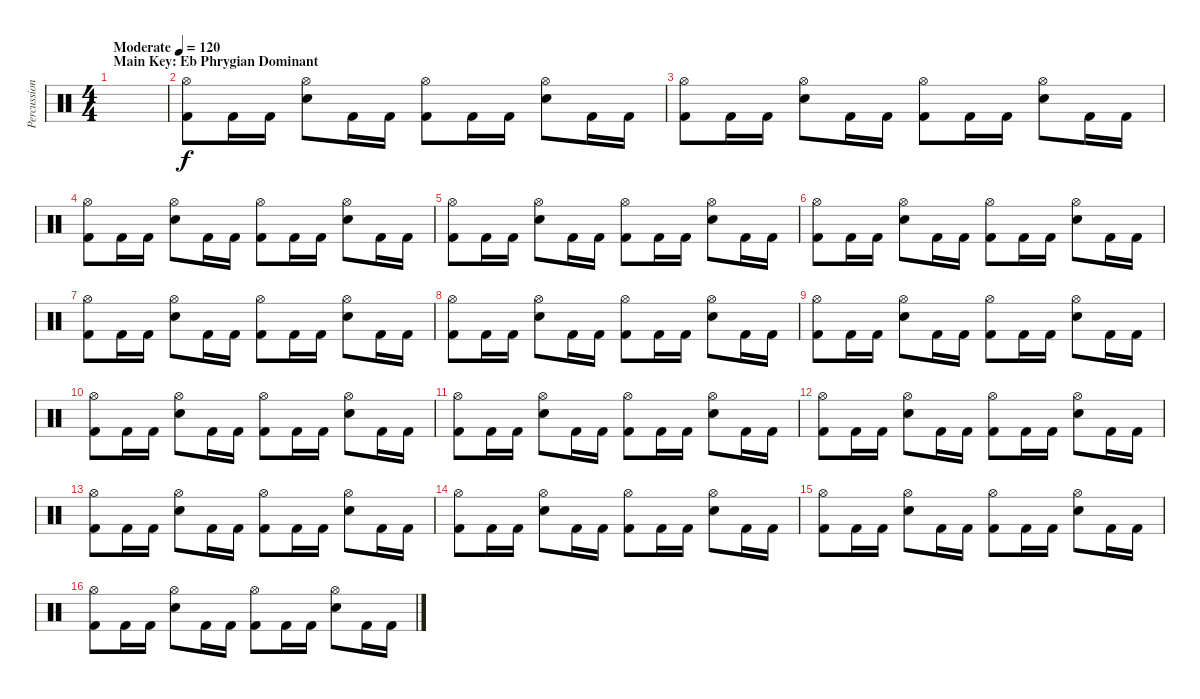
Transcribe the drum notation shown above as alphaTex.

\track ("Percussion" "Percussion") {instrument percussion}
\staff {score}
\articulation defaults
\ts (4 4)
\section ("" "Main Key: Eb Phrygian Dominant")
\tempo (120 "Moderate")
\clef neutral
\ks c
|
("Hi-Hat (open)" "Kick (hit) 2").8 "Kick (hit) 2".16 "Kick (hit) 2".16 ("Hi-Hat (open)" "Electric Snare (hit)").8 "Kick (hit) 2".16 "Kick (hit) 2".16 ("Hi-Hat (open)" "Kick (hit) 2").8 "Kick (hit) 2".16 "Kick (hit) 2".16 ("Hi-Hat (open)" "Electric Snare (hit)").8 "Kick (hit) 2".16 "Kick (hit) 2".16 |
("Hi-Hat (open)" "Kick (hit) 2").8 "Kick (hit) 2".16 "Kick (hit) 2".16 ("Hi-Hat (open)" "Electric Snare (hit)").8 "Kick (hit) 2".16 "Kick (hit) 2".16 ("Hi-Hat (open)" "Kick (hit) 2").8 "Kick (hit) 2".16 "Kick (hit) 2".16 ("Hi-Hat (open)" "Electric Snare (hit)").8 "Kick (hit) 2".16 "Kick (hit) 2".16 |
("Hi-Hat (open)" "Kick (hit) 2").8 "Kick (hit) 2".16 "Kick (hit) 2".16 ("Hi-Hat (open)" "Electric Snare (hit)").8 "Kick (hit) 2".16 "Kick (hit) 2".16 ("Hi-Hat (open)" "Kick (hit) 2").8 "Kick (hit) 2".16 "Kick (hit) 2".16 ("Hi-Hat (open)" "Electric Snare (hit)").8 "Kick (hit) 2".16 "Kick (hit) 2".16 |
("Hi-Hat (open)" "Kick (hit) 2").8 "Kick (hit) 2".16 "Kick (hit) 2".16 ("Hi-Hat (open)" "Electric Snare (hit)").8 "Kick (hit) 2".16 "Kick (hit) 2".16 ("Hi-Hat (open)" "Kick (hit) 2").8 "Kick (hit) 2".16 "Kick (hit) 2".16 ("Hi-Hat (open)" "Electric Snare (hit)").8 "Kick (hit) 2".16 "Kick (hit) 2".16 |
("Hi-Hat (open)" "Kick (hit) 2").8 "Kick (hit) 2".16 "Kick (hit) 2".16 ("Hi-Hat (open)" "Electric Snare (hit)").8 "Kick (hit) 2".16 "Kick (hit) 2".16 ("Hi-Hat (open)" "Kick (hit) 2").8 "Kick (hit) 2".16 "Kick (hit) 2".16 ("Hi-Hat (open)" "Electric Snare (hit)").8 "Kick (hit) 2".16 "Kick (hit) 2".16 |
("Hi-Hat (open)" "Kick (hit) 2").8 "Kick (hit) 2".16 "Kick (hit) 2".16 ("Hi-Hat (open)" "Electric Snare (hit)").8 "Kick (hit) 2".16 "Kick (hit) 2".16 ("Hi-Hat (open)" "Kick (hit) 2").8 "Kick (hit) 2".16 "Kick (hit) 2".16 ("Hi-Hat (open)" "Electric Snare (hit)").8 "Kick (hit) 2".16 "Kick (hit) 2".16 |
("Hi-Hat (open)" "Kick (hit) 2").8 "Kick (hit) 2".16 "Kick (hit) 2".16 ("Hi-Hat (open)" "Electric Snare (hit)").8 "Kick (hit) 2".16 "Kick (hit) 2".16 ("Hi-Hat (open)" "Kick (hit) 2").8 "Kick (hit) 2".16 "Kick (hit) 2".16 ("Hi-Hat (open)" "Electric Snare (hit)").8 "Kick (hit) 2".16 "Kick (hit) 2".16 |
("Hi-Hat (open)" "Kick (hit) 2").8 "Kick (hit) 2".16 "Kick (hit) 2".16 ("Hi-Hat (open)" "Electric Snare (hit)").8 "Kick (hit) 2".16 "Kick (hit) 2".16 ("Hi-Hat (open)" "Kick (hit) 2").8 "Kick (hit) 2".16 "Kick (hit) 2".16 ("Hi-Hat (open)" "Electric Snare (hit)").8 "Kick (hit) 2".16 "Kick (hit) 2".16 |
("Hi-Hat (open)" "Kick (hit) 2").8 "Kick (hit) 2".16 "Kick (hit) 2".16 ("Hi-Hat (open)" "Electric Snare (hit)").8 "Kick (hit) 2".16 "Kick (hit) 2".16 ("Hi-Hat (open)" "Kick (hit) 2").8 "Kick (hit) 2".16 "Kick (hit) 2".16 ("Hi-Hat (open)" "Electric Snare (hit)").8 "Kick (hit) 2".16 "Kick (hit) 2".16 |
("Hi-Hat (open)" "Kick (hit) 2").8 "Kick (hit) 2".16 "Kick (hit) 2".16 ("Hi-Hat (open)" "Electric Snare (hit)").8 "Kick (hit) 2".16 "Kick (hit) 2".16 ("Hi-Hat (open)" "Kick (hit) 2").8 "Kick (hit) 2".16 "Kick (hit) 2".16 ("Hi-Hat (open)" "Electric Snare (hit)").8 "Kick (hit) 2".16 "Kick (hit) 2".16 |
("Hi-Hat (open)" "Kick (hit) 2").8 "Kick (hit) 2".16 "Kick (hit) 2".16 ("Hi-Hat (open)" "Electric Snare (hit)").8 "Kick (hit) 2".16 "Kick (hit) 2".16 ("Hi-Hat (open)" "Kick (hit) 2").8 "Kick (hit) 2".16 "Kick (hit) 2".16 ("Hi-Hat (open)" "Electric Snare (hit)").8 "Kick (hit) 2".16 "Kick (hit) 2".16 |
("Hi-Hat (open)" "Kick (hit) 2").8 "Kick (hit) 2".16 "Kick (hit) 2".16 ("Hi-Hat (open)" "Electric Snare (hit)").8 "Kick (hit) 2".16 "Kick (hit) 2".16 ("Hi-Hat (open)" "Kick (hit) 2").8 "Kick (hit) 2".16 "Kick (hit) 2".16 ("Hi-Hat (open)" "Electric Snare (hit)").8 "Kick (hit) 2".16 "Kick (hit) 2".16 |
("Hi-Hat (open)" "Kick (hit) 2").8 "Kick (hit) 2".16 "Kick (hit) 2".16 ("Hi-Hat (open)" "Electric Snare (hit)").8 "Kick (hit) 2".16 "Kick (hit) 2".16 ("Hi-Hat (open)" "Kick (hit) 2").8 "Kick (hit) 2".16 "Kick (hit) 2".16 ("Hi-Hat (open)" "Electric Snare (hit)").8 "Kick (hit) 2".16 "Kick (hit) 2".16 |
("Hi-Hat (open)" "Kick (hit) 2").8 "Kick (hit) 2".16 "Kick (hit) 2".16 ("Hi-Hat (open)" "Electric Snare (hit)").8 "Kick (hit) 2".16 "Kick (hit) 2".16 ("Hi-Hat (open)" "Kick (hit) 2").8 "Kick (hit) 2".16 "Kick (hit) 2".16 ("Hi-Hat (open)" "Electric Snare (hit)").8 "Kick (hit) 2".16 "Kick (hit) 2".16 |
("Hi-Hat (open)" "Kick (hit) 2").8 "Kick (hit) 2".16 "Kick (hit) 2".16 ("Hi-Hat (open)" "Electric Snare (hit)").8 "Kick (hit) 2".16 "Kick (hit) 2".16 ("Hi-Hat (open)" "Kick (hit) 2").8 "Kick (hit) 2".16 "Kick (hit) 2".16 ("Hi-Hat (open)" "Electric Snare (hit)").8 "Kick (hit) 2".16 "Kick (hit) 2".16
